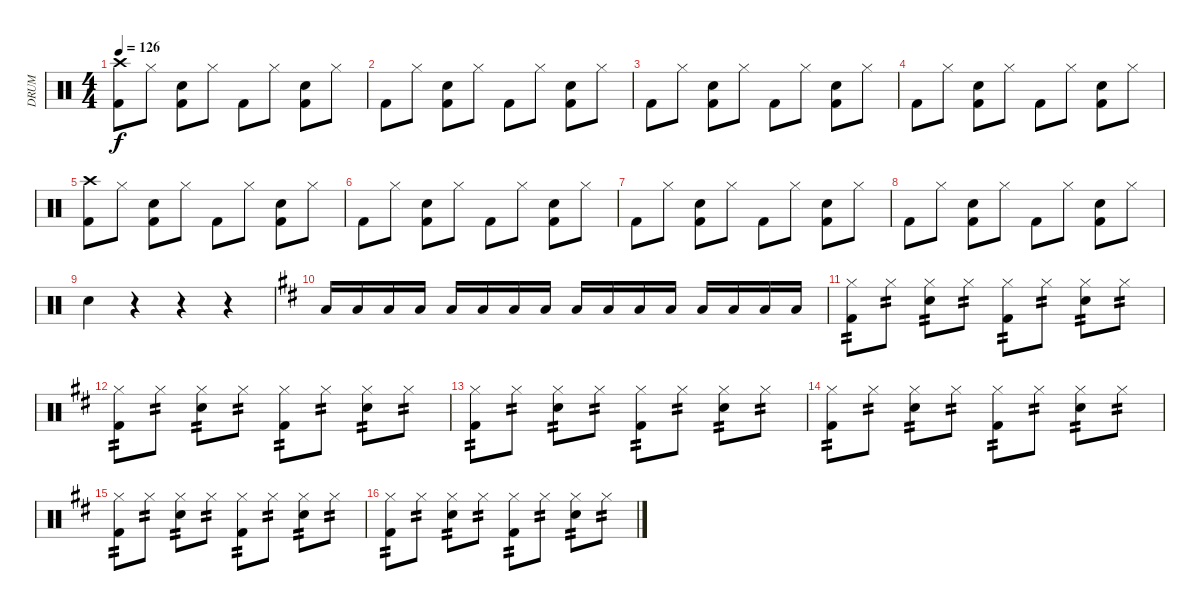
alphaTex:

\track ("DRUM" "DRUM") {instrument percussion}
\staff {score}
\articulation defaults
\ts (4 4)
\tempo 126
\clef neutral
\ks c
("Crash high (hit)" "Kick (hit) 2").8{dy f} "Hi-Hat (closed)".8 ("Electric Snare (hit)" "Kick (hit) 2").8 "Hi-Hat (closed)".8 "Kick (hit) 2".8 "Hi-Hat (closed)".8 ("Electric Snare (hit)" "Kick (hit) 2").8 "Hi-Hat (closed)".8 |
"Kick (hit) 2".8 "Hi-Hat (closed)".8 ("Electric Snare (hit)" "Kick (hit) 2").8 "Hi-Hat (closed)".8 "Kick (hit) 2".8 "Hi-Hat (closed)".8 ("Electric Snare (hit)" "Kick (hit) 2").8 "Hi-Hat (closed)".8 |
"Kick (hit) 2".8 "Hi-Hat (closed)".8 ("Electric Snare (hit)" "Kick (hit) 2").8 "Hi-Hat (closed)".8 "Kick (hit) 2".8 "Hi-Hat (closed)".8 ("Electric Snare (hit)" "Kick (hit) 2").8 "Hi-Hat (closed)".8 |
"Kick (hit) 2".8 "Hi-Hat (closed)".8 ("Electric Snare (hit)" "Kick (hit) 2").8 "Hi-Hat (closed)".8 "Kick (hit) 2".8 "Hi-Hat (closed)".8 ("Electric Snare (hit)" "Kick (hit) 2").8 "Hi-Hat (closed)".8 |
("Crash high (hit)" "Kick (hit) 2").8 "Hi-Hat (closed)".8 ("Electric Snare (hit)" "Kick (hit) 2").8 "Hi-Hat (closed)".8 "Kick (hit) 2".8 "Hi-Hat (closed)".8 ("Electric Snare (hit)" "Kick (hit) 2").8 "Hi-Hat (closed)".8 |
"Kick (hit) 2".8 "Hi-Hat (closed)".8 ("Electric Snare (hit)" "Kick (hit) 2").8 "Hi-Hat (closed)".8 "Kick (hit) 2".8 "Hi-Hat (closed)".8 ("Electric Snare (hit)" "Kick (hit) 2").8 "Hi-Hat (closed)".8 |
"Kick (hit) 2".8 "Hi-Hat (closed)".8 ("Electric Snare (hit)" "Kick (hit) 2").8 "Hi-Hat (closed)".8 "Kick (hit) 2".8 "Hi-Hat (closed)".8 ("Electric Snare (hit)" "Kick (hit) 2").8 "Hi-Hat (closed)".8 |
"Kick (hit) 2".8 "Hi-Hat (closed)".8 ("Electric Snare (hit)" "Kick (hit) 2").8 "Hi-Hat (closed)".8 "Kick (hit) 2".8 "Hi-Hat (closed)".8 ("Electric Snare (hit)" "Kick (hit) 2").8 "Hi-Hat (closed)".8 |
"Electric Snare (hit)".4 r.4 r.4 r.4 |
\ks d "Low Floor Tom (hit)".16 "Low Floor Tom (hit)".16 "Low Floor Tom (hit)".16 "Low Floor Tom (hit)".16 "Low Floor Tom (hit)".16 "Low Floor Tom (hit)".16 "Low Floor Tom (hit)".16 "Low Floor Tom (hit)".16 "Low Floor Tom (hit)".16 "Low Floor Tom (hit)".16 "Low Floor Tom (hit)".16 "Low Floor Tom (hit)".16 "Low Floor Tom (hit)".16 "Low Floor Tom (hit)".16 "Low Floor Tom (hit)".16 "Low Floor Tom (hit)".16
|
("Hi-Hat (closed)" "Kick (hit) 2").8{tp 2} "Hi-Hat (closed)".8{tp 2} ("Hi-Hat (closed)" "Electric Snare (hit)").8{tp 2} "Hi-Hat (closed)".8{tp 2} ("Hi-Hat (closed)" "Kick (hit) 2").8{tp 2} "Hi-Hat (closed)".8{tp 2} ("Hi-Hat (closed)" "Electric Snare (hit)").8{tp 2} "Hi-Hat (closed)".8{tp 2} |
("Hi-Hat (closed)" "Kick (hit) 2").8{tp 2} "Hi-Hat (closed)".8{tp 2} ("Hi-Hat (closed)" "Electric Snare (hit)").8{tp 2} "Hi-Hat (closed)".8{tp 2} ("Hi-Hat (closed)" "Kick (hit) 2").8{tp 2} "Hi-Hat (closed)".8{tp 2} ("Hi-Hat (closed)" "Electric Snare (hit)").8{tp 2} "Hi-Hat (closed)".8{tp 2} |
("Hi-Hat (closed)" "Kick (hit) 2").8{tp 2} "Hi-Hat (closed)".8{tp 2} ("Hi-Hat (closed)" "Electric Snare (hit)").8{tp 2} "Hi-Hat (closed)".8{tp 2} ("Hi-Hat (closed)" "Kick (hit) 2").8{tp 2} "Hi-Hat (closed)".8{tp 2} ("Hi-Hat (closed)" "Electric Snare (hit)").8{tp 2} "Hi-Hat (closed)".8{tp 2} |
("Hi-Hat (closed)" "Kick (hit) 2").8{tp 2} "Hi-Hat (closed)".8{tp 2} ("Hi-Hat (closed)" "Electric Snare (hit)").8{tp 2} "Hi-Hat (closed)".8{tp 2} ("Hi-Hat (closed)" "Kick (hit) 2").8{tp 2} "Hi-Hat (closed)".8{tp 2} ("Hi-Hat (closed)" "Electric Snare (hit)").8{tp 2} "Hi-Hat (closed)".8{tp 2} |
("Hi-Hat (closed)" "Kick (hit) 2").8{tp 2} "Hi-Hat (closed)".8{tp 2} ("Hi-Hat (closed)" "Electric Snare (hit)").8{tp 2} "Hi-Hat (closed)".8{tp 2} ("Hi-Hat (closed)" "Kick (hit) 2").8{tp 2} "Hi-Hat (closed)".8{tp 2} ("Hi-Hat (closed)" "Electric Snare (hit)").8{tp 2} "Hi-Hat (closed)".8{tp 2} |
("Hi-Hat (closed)" "Kick (hit) 2").8{tp 2} "Hi-Hat (closed)".8{tp 2} ("Hi-Hat (closed)" "Electric Snare (hit)").8{tp 2} "Hi-Hat (closed)".8{tp 2} ("Hi-Hat (closed)" "Kick (hit) 2").8{tp 2} "Hi-Hat (closed)".8{tp 2} ("Hi-Hat (closed)" "Electric Snare (hit)").8{tp 2} "Hi-Hat (closed)".8{tp 2}
